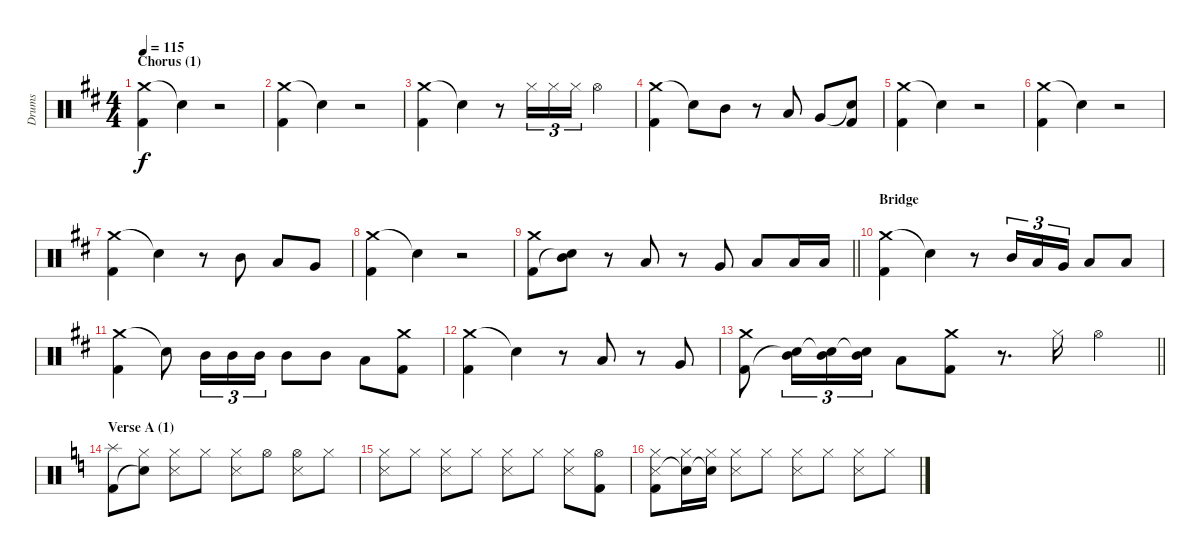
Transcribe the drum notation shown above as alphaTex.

\track ("Drums" "Drums") {instrument percussion}
\staff {score}
\articulation defaults
\ts (4 4)
\section ("" "Chorus (1)")
\tempo 115
\clef neutral
\ks d
("Crash medium (hit)" "Kick (hit) 2").4{dy f} "Snare (hit)"{t}.4 r.2 |
("Crash medium (hit)" "Kick (hit) 2").4 "Snare (hit)"{t}.4 r.2 |
("Crash medium (hit)" "Kick (hit) 2").4 "Snare (hit)"{t}.4 r.8 "Hi-Hat (closed)".16{tu (3 2)} "Hi-Hat (closed)".16{tu (3 2)} "Hi-Hat (closed)".16{tu (3 2)} "Hi-Hat (open)".4 |
("Crash medium (hit)" "Kick (hit) 2").4 "Snare (hit)"{t}.8 "Mid Tom (hit)".8 r.8 "Low Tom (hit)".8 "Very Low Tom (hit)".8 ("Snare (hit)"{t} "Kick (hit) 2").8 |
("Crash medium (hit)" "Kick (hit) 2").4 "Snare (hit)"{t}.4 r.2 |
("Crash medium (hit)" "Kick (hit) 2").4 "Snare (hit)"{t}.4 r.2 |
("Crash medium (hit)" "Kick (hit) 2").4 "Snare (hit)"{t}.4 r.8 "Mid Tom (hit)".8 "Low Tom (hit)".8 "Very Low Tom (hit)".8 |
("Crash medium (hit)" "Kick (hit) 2").4 "Snare (hit)"{t}.4 r.2 |
\barLineRight lightlight
("Crash medium (hit)" "Kick (hit) 2").8 ("Mid Tom (hit)" "Snare (hit)"{t}).8 r.8 "Low Tom (hit)".8 r.8 "Very Low Tom (hit)".8 "Low Floor Tom (hit)".8 "Low Floor Tom (hit)".16 "Low Floor Tom (hit)".16 |
\section ("" "Bridge")
("Crash medium (hit)" "Kick (hit) 2").4 "Snare (hit)"{t}.4 r.8 "Mid Tom (hit)".16{tu (3 2)} "Low Tom (hit)".16{tu (3 2)} "Very Low Tom (hit)".16{tu (3 2)} "Low Floor Tom (hit)".8 "Low Tom (hit)".8 |
("Crash medium (hit)" "Kick (hit) 2").4 "Snare (hit)"{t}.8 "Mid Tom (hit)".16{tu (3 2)} "Mid Tom (hit)".16{tu (3 2)} "Mid Tom (hit)".16{tu (3 2)} "Mid Tom (hit)".8 "Mid Tom (hit)".8 "Low Tom (hit)".8 ("Crash medium (hit)" "Kick (hit) 2").8 |
("Crash medium (hit)" "Kick (hit) 2").4 "Snare (hit)"{t}.4 r.8 "Low Tom (hit)".8 r.8 "Very Low Tom (hit)".8 |
\barLineRight lightlight
("Crash medium (hit)" "Kick (hit) 2").8 ("Mid Tom (hit)" "Snare (hit)"{t}).16{tu (3 2)} ("Mid Tom (hit)" "Snare (hit)"{t}).16{tu (3 2)} ("Mid Tom (hit)" "Snare (hit)"{t}).16{tu (3 2)} "Low Tom (hit)".8 ("Crash medium (hit)" "Kick (hit) 2").8 r.8{d} "Hi-Hat (closed)".16 "Hi-Hat (open)".4 |
\section ("" "Verse A (1)")
\ks c
("Splash (hit)" "Kick (hit) 2").8 ("Hi-Hat (closed)" "Snare (hit)"{t}).8 ("Hi-Hat (closed)" "Snare (side stick) 3").8 "Hi-Hat (closed)".8 ("Hi-Hat (closed)" "Snare (side stick) 3").8 "Hi-Hat (open)".8 ("Hi-Hat (open)" "Snare (side stick) 3").8 "Hi-Hat (closed)".8 |
("Hi-Hat (closed)" "Snare (side stick) 3").8 "Hi-Hat (closed)".8 ("Hi-Hat (closed)" "Snare (side stick) 3").8 "Hi-Hat (closed)".8 ("Hi-Hat (closed)" "Snare (side stick) 3").8 "Hi-Hat (closed)".8 ("Hi-Hat (closed)" "Snare (side stick) 3").8 ("Hi-Hat (open)" "Kick (hit) 2").8 |
("Hi-Hat (closed)" "Snare (side stick) 3" "Kick (hit) 2").8 ("Hi-Hat (closed)" "Snare (hit)"{t}).16 ("Hi-Hat (closed)" "Snare (hit)"{t}).16 ("Hi-Hat (closed)" "Snare (side stick) 3").8 "Hi-Hat (closed)".8 ("Hi-Hat (closed)" "Snare (side stick) 3").8 "Hi-Hat (closed)".8 ("Hi-Hat (closed)" "Snare (side stick) 3").8 "Hi-Hat (closed)".8
